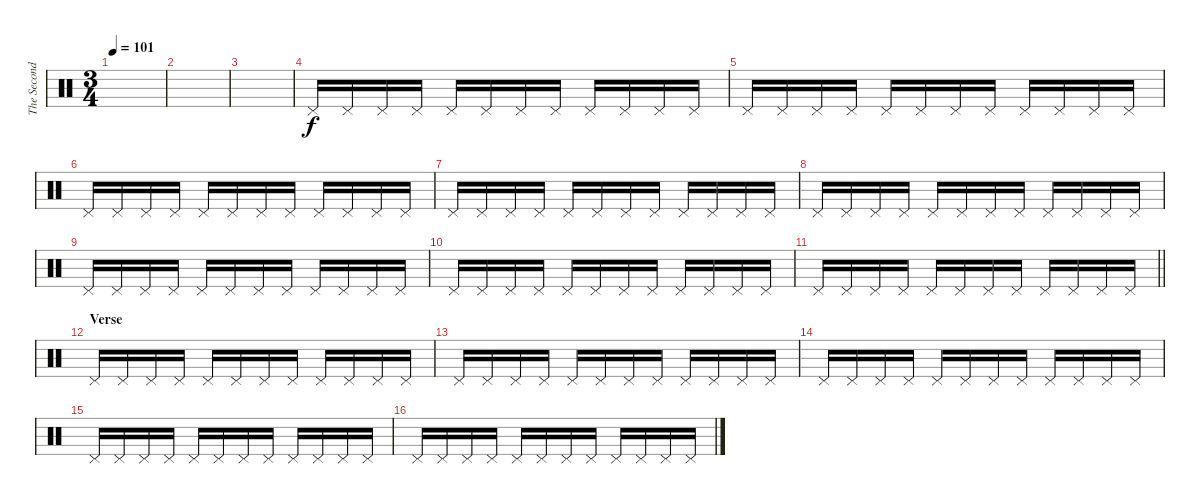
\track ("The Second Drummer" "The Second") {instrument percussion}
\staff {score}
\articulation defaults
\ts (3 4)
\tempo 101
\clef neutral
\ks c
|
|
|
"Pedal Hi-Hat (hit)".16 "Pedal Hi-Hat (hit)".16 "Pedal Hi-Hat (hit)".16 "Pedal Hi-Hat (hit)".16 "Pedal Hi-Hat (hit)".16 "Pedal Hi-Hat (hit)".16 "Pedal Hi-Hat (hit)".16 "Pedal Hi-Hat (hit)".16 "Pedal Hi-Hat (hit)".16 "Pedal Hi-Hat (hit)".16 "Pedal Hi-Hat (hit)".16 "Pedal Hi-Hat (hit)".16 |
"Pedal Hi-Hat (hit)".16 "Pedal Hi-Hat (hit)".16 "Pedal Hi-Hat (hit)".16 "Pedal Hi-Hat (hit)".16 "Pedal Hi-Hat (hit)".16 "Pedal Hi-Hat (hit)".16 "Pedal Hi-Hat (hit)".16 "Pedal Hi-Hat (hit)".16 "Pedal Hi-Hat (hit)".16 "Pedal Hi-Hat (hit)".16 "Pedal Hi-Hat (hit)".16 "Pedal Hi-Hat (hit)".16 |
"Pedal Hi-Hat (hit)".16 "Pedal Hi-Hat (hit)".16 "Pedal Hi-Hat (hit)".16 "Pedal Hi-Hat (hit)".16 "Pedal Hi-Hat (hit)".16 "Pedal Hi-Hat (hit)".16 "Pedal Hi-Hat (hit)".16 "Pedal Hi-Hat (hit)".16 "Pedal Hi-Hat (hit)".16 "Pedal Hi-Hat (hit)".16 "Pedal Hi-Hat (hit)".16 "Pedal Hi-Hat (hit)".16 |
"Pedal Hi-Hat (hit)".16 "Pedal Hi-Hat (hit)".16 "Pedal Hi-Hat (hit)".16 "Pedal Hi-Hat (hit)".16 "Pedal Hi-Hat (hit)".16 "Pedal Hi-Hat (hit)".16 "Pedal Hi-Hat (hit)".16 "Pedal Hi-Hat (hit)".16 "Pedal Hi-Hat (hit)".16 "Pedal Hi-Hat (hit)".16 "Pedal Hi-Hat (hit)".16 "Pedal Hi-Hat (hit)".16 |
"Pedal Hi-Hat (hit)".16 "Pedal Hi-Hat (hit)".16 "Pedal Hi-Hat (hit)".16 "Pedal Hi-Hat (hit)".16 "Pedal Hi-Hat (hit)".16 "Pedal Hi-Hat (hit)".16 "Pedal Hi-Hat (hit)".16 "Pedal Hi-Hat (hit)".16 "Pedal Hi-Hat (hit)".16 "Pedal Hi-Hat (hit)".16 "Pedal Hi-Hat (hit)".16 "Pedal Hi-Hat (hit)".16 |
"Pedal Hi-Hat (hit)".16 "Pedal Hi-Hat (hit)".16 "Pedal Hi-Hat (hit)".16 "Pedal Hi-Hat (hit)".16 "Pedal Hi-Hat (hit)".16 "Pedal Hi-Hat (hit)".16 "Pedal Hi-Hat (hit)".16 "Pedal Hi-Hat (hit)".16 "Pedal Hi-Hat (hit)".16 "Pedal Hi-Hat (hit)".16 "Pedal Hi-Hat (hit)".16 "Pedal Hi-Hat (hit)".16 |
"Pedal Hi-Hat (hit)".16 "Pedal Hi-Hat (hit)".16 "Pedal Hi-Hat (hit)".16 "Pedal Hi-Hat (hit)".16 "Pedal Hi-Hat (hit)".16 "Pedal Hi-Hat (hit)".16 "Pedal Hi-Hat (hit)".16 "Pedal Hi-Hat (hit)".16 "Pedal Hi-Hat (hit)".16 "Pedal Hi-Hat (hit)".16 "Pedal Hi-Hat (hit)".16 "Pedal Hi-Hat (hit)".16 |
\barLineRight lightlight "Pedal Hi-Hat (hit)".16 "Pedal Hi-Hat (hit)".16 "Pedal Hi-Hat (hit)".16 "Pedal Hi-Hat (hit)".16 "Pedal Hi-Hat (hit)".16 "Pedal Hi-Hat (hit)".16 "Pedal Hi-Hat (hit)".16 "Pedal Hi-Hat (hit)".16 "Pedal Hi-Hat (hit)".16 "Pedal Hi-Hat (hit)".16 "Pedal Hi-Hat (hit)".16 "Pedal Hi-Hat (hit)".16
|
\section ("" "Verse")
"Pedal Hi-Hat (hit)".16 "Pedal Hi-Hat (hit)".16 "Pedal Hi-Hat (hit)".16 "Pedal Hi-Hat (hit)".16 "Pedal Hi-Hat (hit)".16 "Pedal Hi-Hat (hit)".16 "Pedal Hi-Hat (hit)".16 "Pedal Hi-Hat (hit)".16 "Pedal Hi-Hat (hit)".16 "Pedal Hi-Hat (hit)".16 "Pedal Hi-Hat (hit)".16 "Pedal Hi-Hat (hit)".16 |
"Pedal Hi-Hat (hit)".16 "Pedal Hi-Hat (hit)".16 "Pedal Hi-Hat (hit)".16 "Pedal Hi-Hat (hit)".16 "Pedal Hi-Hat (hit)".16 "Pedal Hi-Hat (hit)".16 "Pedal Hi-Hat (hit)".16 "Pedal Hi-Hat (hit)".16 "Pedal Hi-Hat (hit)".16 "Pedal Hi-Hat (hit)".16 "Pedal Hi-Hat (hit)".16 "Pedal Hi-Hat (hit)".16 |
"Pedal Hi-Hat (hit)".16 "Pedal Hi-Hat (hit)".16 "Pedal Hi-Hat (hit)".16 "Pedal Hi-Hat (hit)".16 "Pedal Hi-Hat (hit)".16 "Pedal Hi-Hat (hit)".16 "Pedal Hi-Hat (hit)".16 "Pedal Hi-Hat (hit)".16 "Pedal Hi-Hat (hit)".16 "Pedal Hi-Hat (hit)".16 "Pedal Hi-Hat (hit)".16 "Pedal Hi-Hat (hit)".16 |
"Pedal Hi-Hat (hit)".16 "Pedal Hi-Hat (hit)".16 "Pedal Hi-Hat (hit)".16 "Pedal Hi-Hat (hit)".16 "Pedal Hi-Hat (hit)".16 "Pedal Hi-Hat (hit)".16 "Pedal Hi-Hat (hit)".16 "Pedal Hi-Hat (hit)".16 "Pedal Hi-Hat (hit)".16 "Pedal Hi-Hat (hit)".16 "Pedal Hi-Hat (hit)".16 "Pedal Hi-Hat (hit)".16 |
"Pedal Hi-Hat (hit)".16 "Pedal Hi-Hat (hit)".16 "Pedal Hi-Hat (hit)".16 "Pedal Hi-Hat (hit)".16 "Pedal Hi-Hat (hit)".16 "Pedal Hi-Hat (hit)".16 "Pedal Hi-Hat (hit)".16 "Pedal Hi-Hat (hit)".16 "Pedal Hi-Hat (hit)".16 "Pedal Hi-Hat (hit)".16 "Pedal Hi-Hat (hit)".16 "Pedal Hi-Hat (hit)".16
